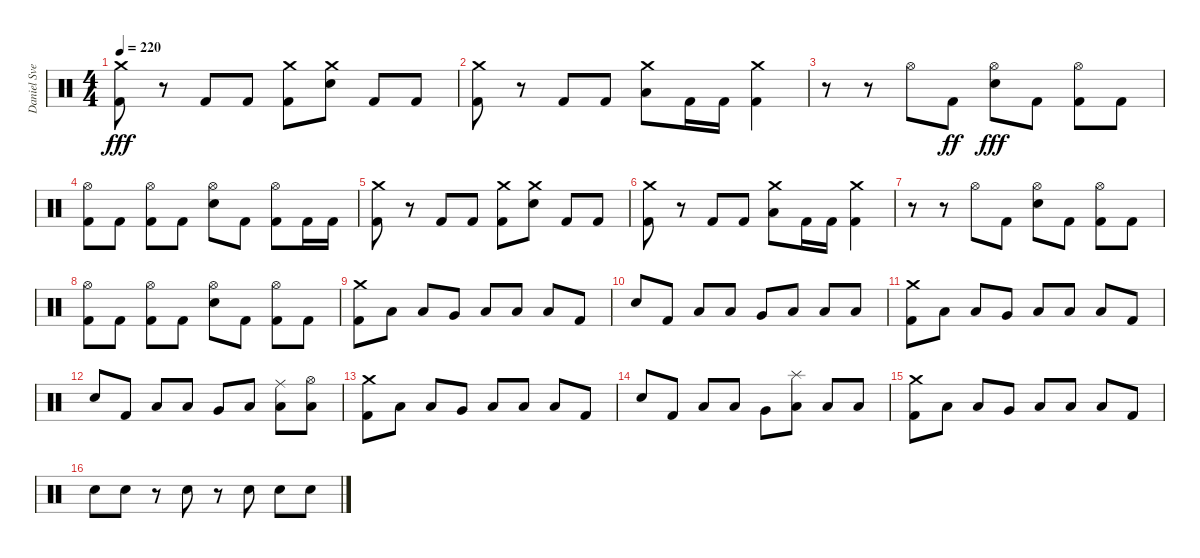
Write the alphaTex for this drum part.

\track ("Daniel Svensson" "Daniel Sve") {instrument percussion}
\staff {score}
\articulation defaults
\ts (4 4)
\tempo 220
\clef neutral
\ks c
("Crash medium (hit)" "Kick (hit) 2").8{dy fff} r.8 "Kick (hit) 2".8 "Kick (hit) 2".8 ("Crash medium (hit)" "Kick (hit) 2").8 ("Crash medium (hit)" "Electric Snare (hit)").8 "Kick (hit) 2".8 "Kick (hit) 2".8 |
("Crash medium (hit)" "Kick (hit) 2").8 r.8 "Kick (hit) 2".8 "Kick (hit) 2".8 ("Crash medium (hit)" "Low Floor Tom (hit)").8 "Kick (hit) 2".16 "Kick (hit) 2".16 ("Crash medium (hit)" "Kick (hit) 2").4 |
r.8 r.8 "Hi-Hat (open)".8 "Kick (hit) 2".8{dy ff} ("Hi-Hat (open)" "Electric Snare (hit)").8{dy fff} "Kick (hit) 2".8 ("Hi-Hat (open)" "Kick (hit) 2").8 "Kick (hit) 2".8 |
("Hi-Hat (open)" "Kick (hit) 2").8 "Kick (hit) 2".8 ("Hi-Hat (open)" "Kick (hit) 2").8 "Kick (hit) 2".8 ("Hi-Hat (open)" "Electric Snare (hit)").8 "Kick (hit) 2".8 ("Hi-Hat (open)" "Kick (hit) 2").8 "Kick (hit) 2".16 "Kick (hit) 2".16 |
("Crash medium (hit)" "Kick (hit) 2").8 r.8 "Kick (hit) 2".8 "Kick (hit) 2".8 ("Crash medium (hit)" "Kick (hit) 2").8 ("Crash medium (hit)" "Electric Snare (hit)").8 "Kick (hit) 2".8 "Kick (hit) 2".8 |
("Crash medium (hit)" "Kick (hit) 2").8 r.8 "Kick (hit) 2".8 "Kick (hit) 2".8 ("Crash medium (hit)" "Low Floor Tom (hit)").8 "Kick (hit) 2".16 "Kick (hit) 2".16 ("Crash medium (hit)" "Kick (hit) 2").4 |
r.8 r.8 "Hi-Hat (open)".8 "Kick (hit) 2".8 ("Hi-Hat (open)" "Electric Snare (hit)").8 "Kick (hit) 2".8 ("Hi-Hat (open)" "Kick (hit) 2").8 "Kick (hit) 2".8 |
("Hi-Hat (open)" "Kick (hit) 2").8 "Kick (hit) 2".8 ("Hi-Hat (open)" "Kick (hit) 2").8 "Kick (hit) 2".8 ("Hi-Hat (open)" "Electric Snare (hit)").8 "Kick (hit) 2".8 ("Hi-Hat (open)" "Kick (hit) 2").8 "Kick (hit) 2".8 |
("Crash medium (hit)" "Kick (hit) 2").8 "Low Tom (hit)".8 "Low Floor Tom (hit)".8 "Very Low Tom (hit)".8 "Low Tom (hit)".8 "Low Floor Tom (hit)".8 "Low Floor Tom (hit)".8 "Kick (hit) 2".8 |
"Electric Snare (hit)".8 "Kick (hit) 2".8 "Low Floor Tom (hit)".8 "Low Tom (hit)".8 "Very Low Tom (hit)".8 "Low Floor Tom (hit)".8 "Low Tom (hit)".8 "Low Floor Tom (hit)".8 |
("Crash medium (hit)" "Kick (hit) 2").8 "Low Tom (hit)".8 "Low Floor Tom (hit)".8 "Very Low Tom (hit)".8 "Low Tom (hit)".8 "Low Floor Tom (hit)".8 "Low Floor Tom (hit)".8 "Kick (hit) 2".8 |
"Electric Snare (hit)".8 "Kick (hit) 2".8 "Low Floor Tom (hit)".8 "Low Tom (hit)".8 "Very Low Tom (hit)".8 "Low Floor Tom (hit)".8 ("Ride (middle)" "Low Tom (hit)").8 ("Hi-Hat (open)" "Low Floor Tom (hit)").8 |
("Crash medium (hit)" "Kick (hit) 2").8 "Low Tom (hit)".8 "Low Floor Tom (hit)".8 "Very Low Tom (hit)".8 "Low Tom (hit)".8 "Low Floor Tom (hit)".8 "Low Floor Tom (hit)".8 "Kick (hit) 2".8 |
"Electric Snare (hit)".8 "Kick (hit) 2".8 "Low Floor Tom (hit)".8 "Low Tom (hit)".8 "Very Low Tom (hit)".8 ("Splash (hit)" "Low Floor Tom (hit)").8 "Low Tom (hit)".8 "Low Floor Tom (hit)".8 |
("Crash medium (hit)" "Kick (hit) 2").8 "Low Tom (hit)".8 "Low Floor Tom (hit)".8 "Very Low Tom (hit)".8 "Low Tom (hit)".8 "Low Floor Tom (hit)".8 "Low Floor Tom (hit)".8 "Kick (hit) 2".8 |
"Electric Snare (hit)".8 "Electric Snare (hit)".8 r.8 "Electric Snare (hit)".8 r.8 "Electric Snare (hit)".8 "Electric Snare (hit)".8 "Electric Snare (hit)".8
